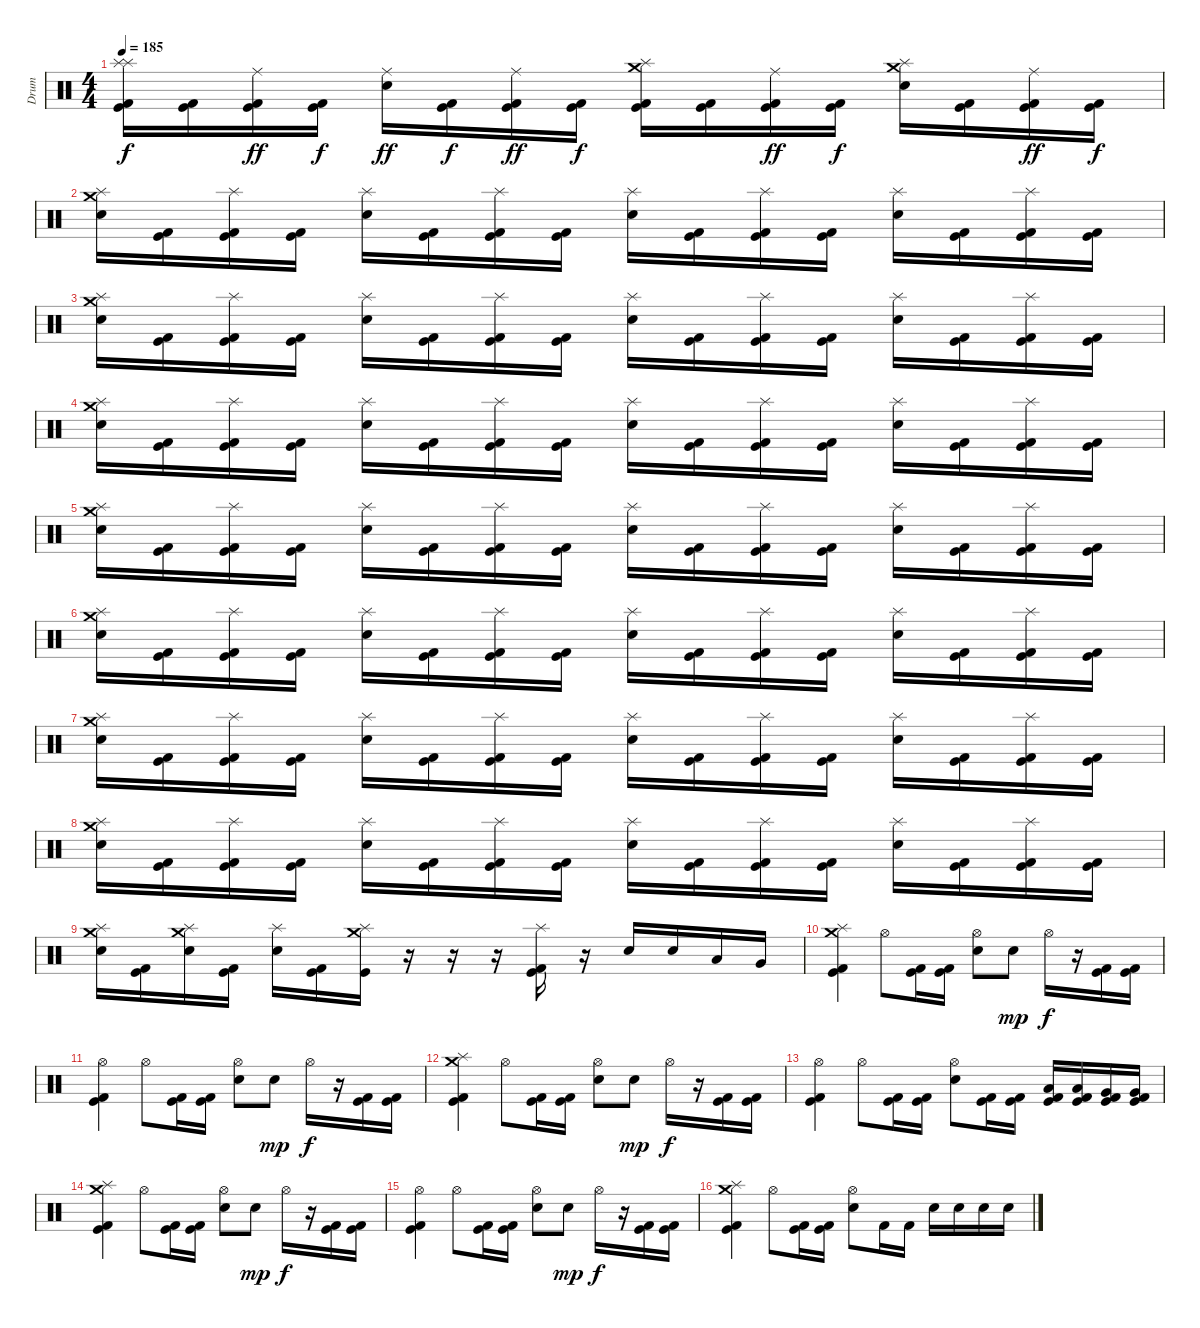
\track ("Drum" "Drum") {instrument percussion}
\staff {score}
\articulation defaults
\ts (4 4)
\tempo 185
\clef neutral
\ks c
("Splash (hit)" "Splash (hit)" "Kick (hit)" "Kick (hit) 2").16{dy f} ("Kick (hit)" "Kick (hit) 2").16 ("Ride (middle)" "Kick (hit)" "Kick (hit) 2").16{dy ff} ("Kick (hit)" "Kick (hit) 2").16{dy f} ("Ride (middle)" "Snare (hit) 2").16{dy ff} ("Kick (hit)" "Kick (hit) 2").16{dy f} ("Ride (middle)" "Kick (hit)" "Kick (hit) 2").16{dy ff} ("Kick (hit)" "Kick (hit) 2").16{dy f} ("Crash medium (hit)" "Splash (hit)" "Kick (hit)" "Kick (hit) 2").16 ("Kick (hit)" "Kick (hit) 2").16 ("Ride (middle)" "Kick (hit)" "Kick (hit) 2").16{dy ff} ("Kick (hit)" "Kick (hit) 2").16{dy f} ("Crash medium (hit)" "Splash (hit)" "Snare (hit) 2").16 ("Kick (hit)" "Kick (hit) 2").16 ("Ride (middle)" "Kick (hit)" "Kick (hit) 2").16{dy ff} ("Kick (hit)" "Kick (hit) 2").16{dy f} |
("Crash medium (hit)" "Splash (hit)" "Snare (hit) 2").16 ("Kick (hit)" "Kick (hit) 2").16 ("Splash (hit)" "Kick (hit)" "Kick (hit) 2").16 ("Kick (hit)" "Kick (hit) 2").16 ("Splash (hit)" "Snare (hit) 2").16 ("Kick (hit)" "Kick (hit) 2").16 ("Splash (hit)" "Kick (hit)" "Kick (hit) 2").16 ("Kick (hit)" "Kick (hit) 2").16 ("Splash (hit)" "Snare (hit) 2").16 ("Kick (hit)" "Kick (hit) 2").16 ("Splash (hit)" "Kick (hit)" "Kick (hit) 2").16 ("Kick (hit)" "Kick (hit) 2").16 ("Splash (hit)" "Snare (hit) 2").16 ("Kick (hit)" "Kick (hit) 2").16 ("Splash (hit)" "Kick (hit)" "Kick (hit) 2").16 ("Kick (hit)" "Kick (hit) 2").16 |
("Crash medium (hit)" "Splash (hit)" "Snare (hit) 2").16 ("Kick (hit)" "Kick (hit) 2").16 ("Splash (hit)" "Kick (hit)" "Kick (hit) 2").16 ("Kick (hit)" "Kick (hit) 2").16 ("Splash (hit)" "Snare (hit) 2").16 ("Kick (hit)" "Kick (hit) 2").16 ("Splash (hit)" "Kick (hit)" "Kick (hit) 2").16 ("Kick (hit)" "Kick (hit) 2").16 ("Splash (hit)" "Snare (hit) 2").16 ("Kick (hit)" "Kick (hit) 2").16 ("Splash (hit)" "Kick (hit)" "Kick (hit) 2").16 ("Kick (hit)" "Kick (hit) 2").16 ("Splash (hit)" "Snare (hit) 2").16 ("Kick (hit)" "Kick (hit) 2").16 ("Splash (hit)" "Kick (hit)" "Kick (hit) 2").16 ("Kick (hit)" "Kick (hit) 2").16 |
("Crash medium (hit)" "Splash (hit)" "Snare (hit) 2").16 ("Kick (hit)" "Kick (hit) 2").16 ("Splash (hit)" "Kick (hit)" "Kick (hit) 2").16 ("Kick (hit)" "Kick (hit) 2").16 ("Splash (hit)" "Snare (hit) 2").16 ("Kick (hit)" "Kick (hit) 2").16 ("Splash (hit)" "Kick (hit)" "Kick (hit) 2").16 ("Kick (hit)" "Kick (hit) 2").16 ("Splash (hit)" "Snare (hit) 2").16 ("Kick (hit)" "Kick (hit) 2").16 ("Splash (hit)" "Kick (hit)" "Kick (hit) 2").16 ("Kick (hit)" "Kick (hit) 2").16 ("Splash (hit)" "Snare (hit) 2").16 ("Kick (hit)" "Kick (hit) 2").16 ("Splash (hit)" "Kick (hit)" "Kick (hit) 2").16 ("Kick (hit)" "Kick (hit) 2").16 |
("Crash medium (hit)" "Splash (hit)" "Snare (hit) 2").16 ("Kick (hit)" "Kick (hit) 2").16 ("Splash (hit)" "Kick (hit)" "Kick (hit) 2").16 ("Kick (hit)" "Kick (hit) 2").16 ("Splash (hit)" "Snare (hit) 2").16 ("Kick (hit)" "Kick (hit) 2").16 ("Splash (hit)" "Kick (hit)" "Kick (hit) 2").16 ("Kick (hit)" "Kick (hit) 2").16 ("Splash (hit)" "Snare (hit) 2").16 ("Kick (hit)" "Kick (hit) 2").16 ("Splash (hit)" "Kick (hit)" "Kick (hit) 2").16 ("Kick (hit)" "Kick (hit) 2").16 ("Splash (hit)" "Snare (hit) 2").16 ("Kick (hit)" "Kick (hit) 2").16 ("Splash (hit)" "Kick (hit)" "Kick (hit) 2").16 ("Kick (hit)" "Kick (hit) 2").16 |
("Crash medium (hit)" "Splash (hit)" "Snare (hit) 2").16 ("Kick (hit)" "Kick (hit) 2").16 ("Splash (hit)" "Kick (hit)" "Kick (hit) 2").16 ("Kick (hit)" "Kick (hit) 2").16 ("Splash (hit)" "Snare (hit) 2").16 ("Kick (hit)" "Kick (hit) 2").16 ("Splash (hit)" "Kick (hit)" "Kick (hit) 2").16 ("Kick (hit)" "Kick (hit) 2").16 ("Splash (hit)" "Snare (hit) 2").16 ("Kick (hit)" "Kick (hit) 2").16 ("Splash (hit)" "Kick (hit)" "Kick (hit) 2").16 ("Kick (hit)" "Kick (hit) 2").16 ("Splash (hit)" "Snare (hit) 2").16 ("Kick (hit)" "Kick (hit) 2").16 ("Splash (hit)" "Kick (hit)" "Kick (hit) 2").16 ("Kick (hit)" "Kick (hit) 2").16 |
("Crash medium (hit)" "Splash (hit)" "Snare (hit) 2").16 ("Kick (hit)" "Kick (hit) 2").16 ("Splash (hit)" "Kick (hit)" "Kick (hit) 2").16 ("Kick (hit)" "Kick (hit) 2").16 ("Splash (hit)" "Snare (hit) 2").16 ("Kick (hit)" "Kick (hit) 2").16 ("Splash (hit)" "Kick (hit)" "Kick (hit) 2").16 ("Kick (hit)" "Kick (hit) 2").16 ("Splash (hit)" "Snare (hit) 2").16 ("Kick (hit)" "Kick (hit) 2").16 ("Splash (hit)" "Kick (hit)" "Kick (hit) 2").16 ("Kick (hit)" "Kick (hit) 2").16 ("Splash (hit)" "Snare (hit) 2").16 ("Kick (hit)" "Kick (hit) 2").16 ("Splash (hit)" "Kick (hit)" "Kick (hit) 2").16 ("Kick (hit)" "Kick (hit) 2").16 |
("Crash medium (hit)" "Splash (hit)" "Snare (hit) 2").16 ("Kick (hit)" "Kick (hit) 2").16 ("Splash (hit)" "Kick (hit)" "Kick (hit) 2").16 ("Kick (hit)" "Kick (hit) 2").16 ("Splash (hit)" "Snare (hit) 2").16 ("Kick (hit)" "Kick (hit) 2").16 ("Splash (hit)" "Kick (hit)" "Kick (hit) 2").16 ("Kick (hit)" "Kick (hit) 2").16 ("Splash (hit)" "Snare (hit) 2").16 ("Kick (hit)" "Kick (hit) 2").16 ("Splash (hit)" "Kick (hit)" "Kick (hit) 2").16 ("Kick (hit)" "Kick (hit) 2").16 ("Splash (hit)" "Snare (hit) 2").16 ("Kick (hit)" "Kick (hit) 2").16 ("Splash (hit)" "Kick (hit)" "Kick (hit) 2").16 ("Kick (hit)" "Kick (hit) 2").16 |
("Crash medium (hit)" "Splash (hit)" "Snare (hit) 2").16 ("Kick (hit)" "Kick (hit) 2").16 ("Crash medium (hit)" "Splash (hit)" "Snare (hit) 2").16 ("Kick (hit)" "Kick (hit) 2").16 ("Splash (hit)" "Snare (hit) 2").16 ("Kick (hit)" "Kick (hit) 2").16 ("Crash medium (hit)" "Splash (hit)" "Kick (hit)").16 r.16 r.16 r.16 ("Splash (hit)" "Kick (hit)" "Kick (hit) 2").16 r.16 "Snare (hit) 2".16 "Snare (hit) 2".16 "Low Tom (hit)".16 "Very Low Tom (hit)".16 |
("Crash medium (hit)" "Splash (hit)" "Kick (hit)" "Kick (hit) 2").4 "Hi-Hat (open)".8 ("Kick (hit)" "Kick (hit) 2").16 ("Kick (hit)" "Kick (hit) 2").16 ("Hi-Hat (open)" "Snare (hit) 2").8 "Snare (hit) 2".8{dy mp} "Hi-Hat (open)".16{dy f} r.16 ("Kick (hit)" "Kick (hit) 2").16 ("Kick (hit)" "Kick (hit) 2").16 |
("Hi-Hat (open)" "Kick (hit)" "Kick (hit) 2").4 "Hi-Hat (open)".8 ("Kick (hit)" "Kick (hit) 2").16 ("Kick (hit)" "Kick (hit) 2").16 ("Hi-Hat (open)" "Snare (hit) 2").8 "Snare (hit) 2".8{dy mp} "Hi-Hat (open)".16{dy f} r.16 ("Kick (hit)" "Kick (hit) 2").16 ("Kick (hit)" "Kick (hit) 2").16 |
("Crash medium (hit)" "Splash (hit)" "Kick (hit)" "Kick (hit) 2").4 "Hi-Hat (open)".8 ("Kick (hit)" "Kick (hit) 2").16 ("Kick (hit)" "Kick (hit) 2").16 ("Hi-Hat (open)" "Snare (hit) 2").8 "Snare (hit) 2".8{dy mp} "Hi-Hat (open)".16{dy f} r.16 ("Kick (hit)" "Kick (hit) 2").16 ("Kick (hit)" "Kick (hit) 2").16 |
("Hi-Hat (open)" "Kick (hit)" "Kick (hit) 2").4 "Hi-Hat (open)".8 ("Kick (hit)" "Kick (hit) 2").16 ("Kick (hit)" "Kick (hit) 2").16 ("Hi-Hat (open)" "Snare (hit) 2").8 ("Kick (hit)" "Kick (hit) 2").16 ("Kick (hit)" "Kick (hit) 2").16 ("Low Tom (hit)" "Kick (hit)" "Kick (hit) 2").16 ("Low Tom (hit)" "Kick (hit)" "Kick (hit) 2").16 ("Very Low Tom (hit)" "Kick (hit)" "Kick (hit) 2").16 ("Very Low Tom (hit)" "Kick (hit)" "Kick (hit) 2").16 |
("Crash medium (hit)" "Splash (hit)" "Kick (hit)" "Kick (hit) 2").4 "Hi-Hat (open)".8 ("Kick (hit)" "Kick (hit) 2").16 ("Kick (hit)" "Kick (hit) 2").16 ("Hi-Hat (open)" "Snare (hit) 2").8 "Snare (hit) 2".8{dy mp} "Hi-Hat (open)".16{dy f} r.16 ("Kick (hit)" "Kick (hit) 2").16 ("Kick (hit)" "Kick (hit) 2").16 |
("Hi-Hat (open)" "Kick (hit)" "Kick (hit) 2").4 "Hi-Hat (open)".8 ("Kick (hit)" "Kick (hit) 2").16 ("Kick (hit)" "Kick (hit) 2").16 ("Hi-Hat (open)" "Snare (hit) 2").8 "Snare (hit) 2".8{dy mp} "Hi-Hat (open)".16{dy f} r.16 ("Kick (hit)" "Kick (hit) 2").16 ("Kick (hit)" "Kick (hit) 2").16 |
("Crash medium (hit)" "Splash (hit)" "Kick (hit)" "Kick (hit) 2").4 "Hi-Hat (open)".8 ("Kick (hit)" "Kick (hit) 2").16 ("Kick (hit)" "Kick (hit) 2").16 ("Hi-Hat (open)" "Snare (hit) 2").8 "Kick (hit) 2".16 "Kick (hit) 2".16 "Snare (hit) 2".16 "Snare (hit) 2".16 "Snare (hit) 2".16 "Snare (hit) 2".16
